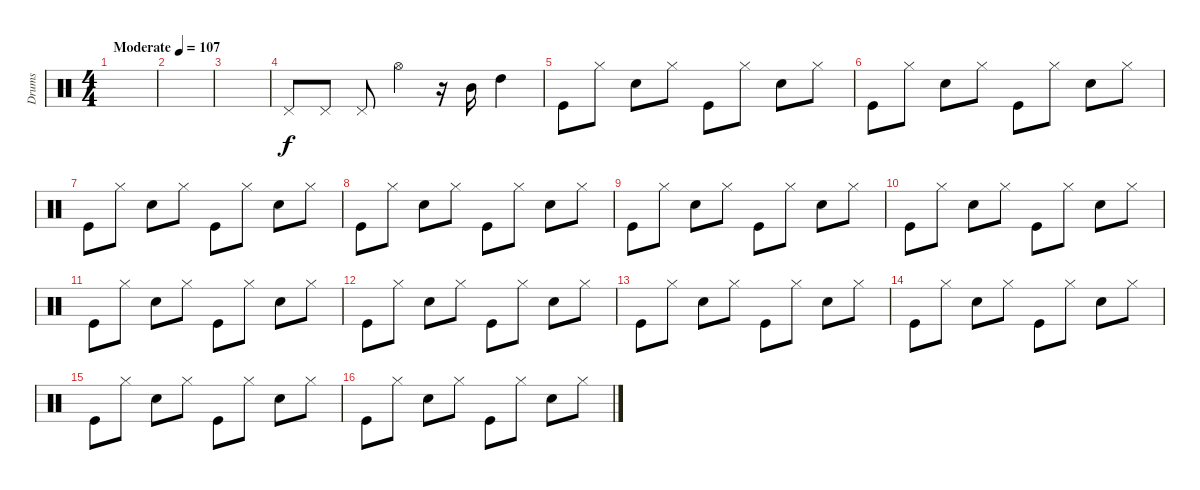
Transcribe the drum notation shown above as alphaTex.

\track ("Drums" "Drums") {instrument percussion}
\staff {score}
\articulation defaults
\ts (4 4)
\tempo (107 "Moderate")
\clef neutral
\ks c
|
|
|
"Pedal Hi-Hat (hit)".8 "Pedal Hi-Hat (hit)".8 "Pedal Hi-Hat (hit)".8 "Hi-Hat (open)".4 r.16 "Mid Tom (hit)".16 "High Tom (hit)".4 |
"Kick (hit)".8 "Hi-Hat (closed)".8 "Snare (hit) 2".8 "Hi-Hat (closed)".8 "Kick (hit)".8 "Hi-Hat (closed)".8 "Snare (hit) 2".8 "Hi-Hat (closed)".8 |
"Kick (hit)".8 "Hi-Hat (closed)".8 "Snare (hit) 2".8 "Hi-Hat (closed)".8 "Kick (hit)".8 "Hi-Hat (closed)".8 "Snare (hit) 2".8 "Hi-Hat (closed)".8 |
"Kick (hit)".8 "Hi-Hat (closed)".8 "Snare (hit) 2".8 "Hi-Hat (closed)".8 "Kick (hit)".8 "Hi-Hat (closed)".8 "Snare (hit) 2".8 "Hi-Hat (closed)".8 |
"Kick (hit)".8 "Hi-Hat (closed)".8 "Snare (hit) 2".8 "Hi-Hat (closed)".8 "Kick (hit)".8 "Hi-Hat (closed)".8 "Snare (hit) 2".8 "Hi-Hat (closed)".8 |
"Kick (hit)".8 "Hi-Hat (closed)".8 "Snare (hit) 2".8 "Hi-Hat (closed)".8 "Kick (hit)".8 "Hi-Hat (closed)".8 "Snare (hit) 2".8 "Hi-Hat (closed)".8 |
"Kick (hit)".8 "Hi-Hat (closed)".8 "Snare (hit) 2".8 "Hi-Hat (closed)".8 "Kick (hit)".8 "Hi-Hat (closed)".8 "Snare (hit) 2".8 "Hi-Hat (closed)".8 |
"Kick (hit)".8 "Hi-Hat (closed)".8 "Snare (hit) 2".8 "Hi-Hat (closed)".8 "Kick (hit)".8 "Hi-Hat (closed)".8 "Snare (hit) 2".8 "Hi-Hat (closed)".8 |
"Kick (hit)".8 "Hi-Hat (closed)".8 "Snare (hit) 2".8 "Hi-Hat (closed)".8 "Kick (hit)".8 "Hi-Hat (closed)".8 "Snare (hit) 2".8 "Hi-Hat (closed)".8 |
"Kick (hit)".8 "Hi-Hat (closed)".8 "Snare (hit) 2".8 "Hi-Hat (closed)".8 "Kick (hit)".8 "Hi-Hat (closed)".8 "Snare (hit) 2".8 "Hi-Hat (closed)".8 |
"Kick (hit)".8 "Hi-Hat (closed)".8 "Snare (hit) 2".8 "Hi-Hat (closed)".8 "Kick (hit)".8 "Hi-Hat (closed)".8 "Snare (hit) 2".8 "Hi-Hat (closed)".8 |
"Kick (hit)".8 "Hi-Hat (closed)".8 "Snare (hit) 2".8 "Hi-Hat (closed)".8 "Kick (hit)".8 "Hi-Hat (closed)".8 "Snare (hit) 2".8 "Hi-Hat (closed)".8 |
"Kick (hit)".8 "Hi-Hat (closed)".8 "Snare (hit) 2".8 "Hi-Hat (closed)".8 "Kick (hit)".8 "Hi-Hat (closed)".8 "Snare (hit) 2".8 "Hi-Hat (closed)".8
